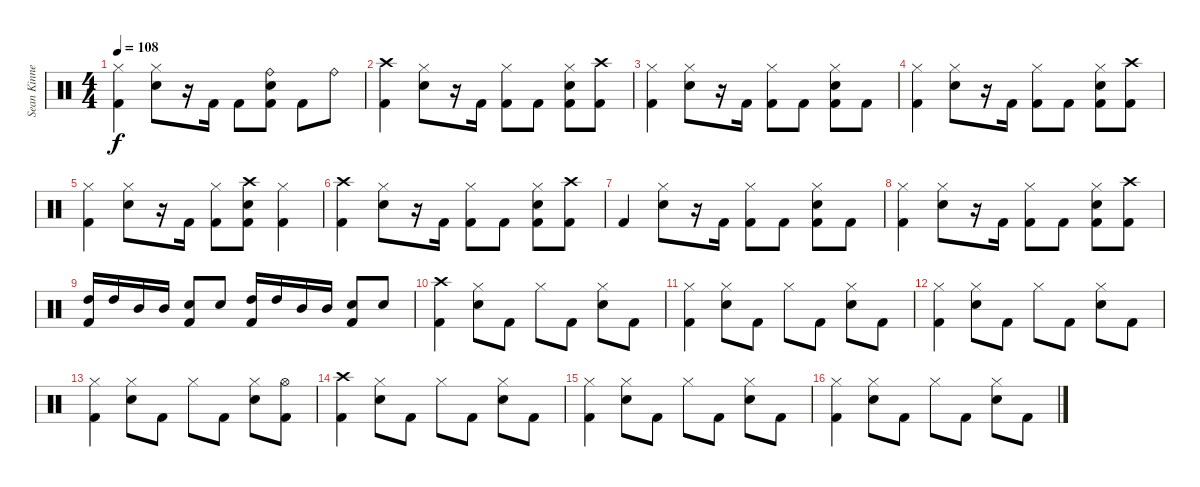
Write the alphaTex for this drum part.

\track ("Sean Kinney - Drums" "Sean Kinne") {instrument percussion}
\staff {score}
\articulation defaults
\ts (4 4)
\tempo 108
\clef neutral
\ks c
("Hi-Hat (closed)" "Kick (hit) 2").4{dy f} ("Hi-Hat (closed)" "Electric Snare (hit)").8 r.16 "Kick (hit) 2".16 "Kick (hit) 2".8 ("Ride (bell)" "Electric Snare (hit)" "Kick (hit) 2").8 "Kick (hit) 2".8 "Ride (bell)".8 |
("Crash high (hit)" "Kick (hit) 2").4 ("Hi-Hat (closed)" "Electric Snare (hit)").8 r.16 "Kick (hit) 2".16 ("Hi-Hat (closed)" "Kick (hit) 2").8 "Kick (hit) 2".8 ("Hi-Hat (closed)" "Electric Snare (hit)" "Kick (hit) 2").8 ("Crash high (hit)" "Kick (hit) 2").8 |
("Hi-Hat (closed)" "Kick (hit) 2").4 ("Hi-Hat (closed)" "Electric Snare (hit)").8 r.16 "Kick (hit) 2".16 ("Hi-Hat (closed)" "Kick (hit) 2").8 "Kick (hit) 2".8 ("Hi-Hat (closed)" "Electric Snare (hit)" "Kick (hit) 2").8 "Kick (hit) 2".8 |
("Hi-Hat (closed)" "Kick (hit) 2").4 ("Hi-Hat (closed)" "Electric Snare (hit)").8 r.16 "Kick (hit) 2".16 ("Hi-Hat (closed)" "Kick (hit) 2").8 "Kick (hit) 2".8 ("Hi-Hat (closed)" "Electric Snare (hit)" "Kick (hit) 2").8 ("Crash high (hit)" "Kick (hit) 2").8 |
("Hi-Hat (closed)" "Kick (hit) 2").4 ("Hi-Hat (closed)" "Electric Snare (hit)").8 r.16 "Kick (hit) 2".16 ("Hi-Hat (closed)" "Kick (hit) 2").8 ("Crash high (hit)" "Electric Snare (hit)" "Kick (hit) 2").8 ("Hi-Hat (closed)" "Kick (hit) 2").4 |
("Crash high (hit)" "Kick (hit) 2").4 ("Hi-Hat (closed)" "Electric Snare (hit)").8 r.16 "Kick (hit) 2".16 ("Hi-Hat (closed)" "Kick (hit) 2").8 "Kick (hit) 2".8 ("Hi-Hat (closed)" "Electric Snare (hit)" "Kick (hit) 2").8 ("Crash high (hit)" "Kick (hit) 2").8 |
"Kick (hit) 2".4 ("Hi-Hat (closed)" "Electric Snare (hit)").8 r.16 "Kick (hit) 2".16 ("Hi-Hat (closed)" "Kick (hit) 2").8 "Kick (hit) 2".8 ("Hi-Hat (closed)" "Electric Snare (hit)" "Kick (hit) 2").8 "Kick (hit) 2".8 |
("Hi-Hat (closed)" "Kick (hit) 2").4 ("Hi-Hat (closed)" "Electric Snare (hit)").8 r.16 "Kick (hit) 2".16 ("Hi-Hat (closed)" "Kick (hit) 2").8 "Kick (hit) 2".8 ("Hi-Hat (closed)" "Electric Snare (hit)" "Kick (hit) 2").8 ("Crash high (hit)" "Kick (hit) 2").8 |
("High Tom (hit)" "Kick (hit) 2").16 "High Tom (hit)".16 "Mid Tom (hit)".16 "Mid Tom (hit)".16 ("Electric Snare (hit)" "Kick (hit) 2").8 "Electric Snare (hit)".8 ("High Tom (hit)" "Kick (hit) 2").16 "High Tom (hit)".16 "Mid Tom (hit)".16 "Mid Tom (hit)".16 ("Electric Snare (hit)" "Kick (hit) 2").8 "Electric Snare (hit)".8 |
("Crash high (hit)" "Kick (hit) 2").4 ("Hi-Hat (closed)" "Electric Snare (hit)").8 "Kick (hit) 2".8 "Hi-Hat (closed)".8 "Kick (hit) 2".8 ("Hi-Hat (closed)" "Electric Snare (hit)").8 "Kick (hit) 2".8 |
("Hi-Hat (closed)" "Kick (hit) 2").4 ("Hi-Hat (closed)" "Electric Snare (hit)").8 "Kick (hit) 2".8 "Hi-Hat (closed)".8 "Kick (hit) 2".8 ("Hi-Hat (closed)" "Electric Snare (hit)").8 "Kick (hit) 2".8 |
("Hi-Hat (closed)" "Kick (hit) 2").4 ("Hi-Hat (closed)" "Electric Snare (hit)").8 "Kick (hit) 2".8 "Hi-Hat (closed)".8 "Kick (hit) 2".8 ("Hi-Hat (closed)" "Electric Snare (hit)").8 "Kick (hit) 2".8 |
("Hi-Hat (closed)" "Kick (hit) 2").4 ("Hi-Hat (closed)" "Electric Snare (hit)").8 "Kick (hit) 2".8 "Hi-Hat (closed)".8 "Kick (hit) 2".8 ("Hi-Hat (closed)" "Electric Snare (hit)").8 ("Hi-Hat (open)" "Kick (hit) 2").8 |
("Crash high (hit)" "Kick (hit) 2").4 ("Hi-Hat (closed)" "Electric Snare (hit)").8 "Kick (hit) 2".8 "Hi-Hat (closed)".8 "Kick (hit) 2".8 ("Hi-Hat (closed)" "Electric Snare (hit)").8 "Kick (hit) 2".8 |
("Hi-Hat (closed)" "Kick (hit) 2").4 ("Hi-Hat (closed)" "Electric Snare (hit)").8 "Kick (hit) 2".8 "Hi-Hat (closed)".8 "Kick (hit) 2".8 ("Hi-Hat (closed)" "Electric Snare (hit)").8 "Kick (hit) 2".8 |
("Hi-Hat (closed)" "Kick (hit) 2").4 ("Hi-Hat (closed)" "Electric Snare (hit)").8 "Kick (hit) 2".8 "Hi-Hat (closed)".8 "Kick (hit) 2".8 ("Hi-Hat (closed)" "Electric Snare (hit)").8 "Kick (hit) 2".8
